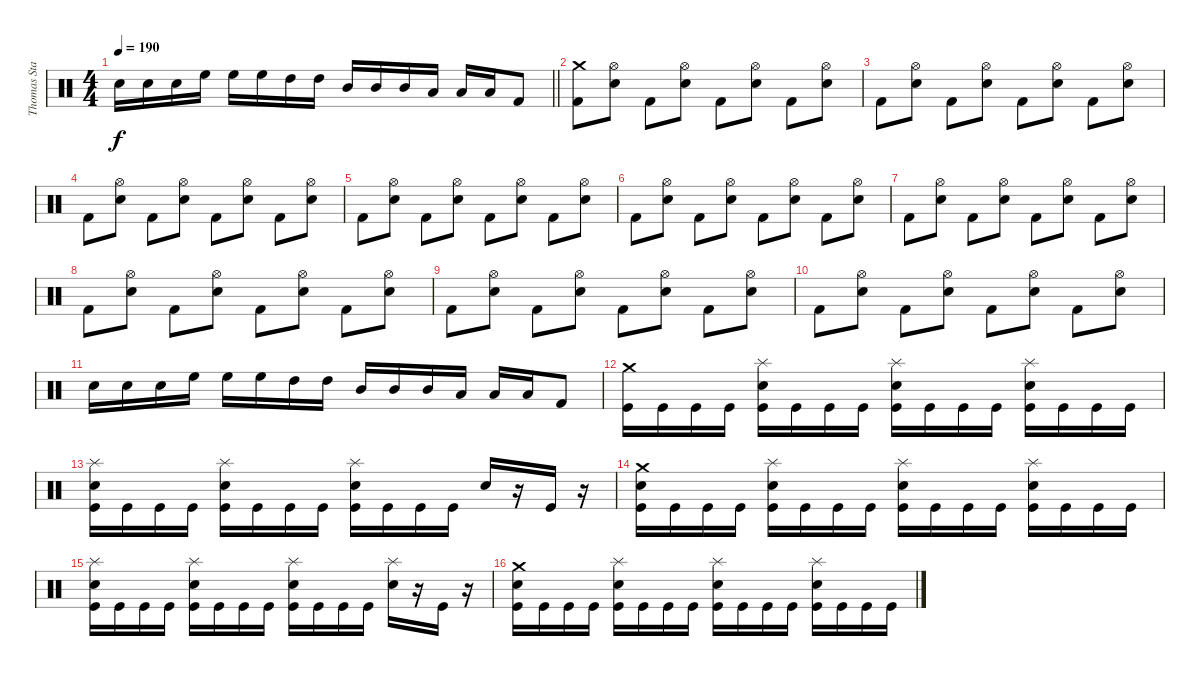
\track ("Thomas Stauch" "Thomas Sta") {instrument percussion}
\staff {score}
\articulation defaults
\ts (4 4)
\tempo 190
\clef neutral
\barLineRight lightlight
\ks c "Snare (hit) 2".16{dy f} "Snare (hit) 2".16 "Snare (hit) 2".16 "High Floor Tom (hit)".16 "High Floor Tom (hit)".16 "High Floor Tom (hit)".16 "High Tom (hit)".16 "High Tom (hit)".16 "Mid Tom (hit)".16 "Mid Tom (hit)".16 "Mid Tom (hit)".16 "Low Tom (hit)".16 "Low Tom (hit)".16 "Low Tom (hit)".16 "Kick (hit) 2".8
|
("Crash medium (hit)" "Kick (hit) 2").8 ("Hi-Hat (open)" "Electric Snare (hit)").8 "Kick (hit) 2".8 ("Hi-Hat (open)" "Electric Snare (hit)").8 "Kick (hit) 2".8 ("Hi-Hat (open)" "Electric Snare (hit)").8 "Kick (hit) 2".8 ("Hi-Hat (open)" "Electric Snare (hit)").8 |
"Kick (hit) 2".8 ("Hi-Hat (open)" "Electric Snare (hit)").8 "Kick (hit) 2".8 ("Hi-Hat (open)" "Electric Snare (hit)").8 "Kick (hit) 2".8 ("Hi-Hat (open)" "Electric Snare (hit)").8 "Kick (hit) 2".8 ("Hi-Hat (open)" "Electric Snare (hit)").8 |
"Kick (hit) 2".8 ("Hi-Hat (open)" "Electric Snare (hit)").8 "Kick (hit) 2".8 ("Hi-Hat (open)" "Electric Snare (hit)").8 "Kick (hit) 2".8 ("Hi-Hat (open)" "Electric Snare (hit)").8 "Kick (hit) 2".8 ("Hi-Hat (open)" "Electric Snare (hit)").8 |
"Kick (hit) 2".8 ("Hi-Hat (open)" "Electric Snare (hit)").8 "Kick (hit) 2".8 ("Hi-Hat (open)" "Electric Snare (hit)").8 "Kick (hit) 2".8 ("Hi-Hat (open)" "Electric Snare (hit)").8 "Kick (hit) 2".8 ("Hi-Hat (open)" "Electric Snare (hit)").8 |
"Kick (hit) 2".8 ("Hi-Hat (open)" "Electric Snare (hit)").8 "Kick (hit) 2".8 ("Hi-Hat (open)" "Electric Snare (hit)").8 "Kick (hit) 2".8 ("Hi-Hat (open)" "Electric Snare (hit)").8 "Kick (hit) 2".8 ("Hi-Hat (open)" "Electric Snare (hit)").8 |
"Kick (hit) 2".8 ("Hi-Hat (open)" "Electric Snare (hit)").8 "Kick (hit) 2".8 ("Hi-Hat (open)" "Electric Snare (hit)").8 "Kick (hit) 2".8 ("Hi-Hat (open)" "Electric Snare (hit)").8 "Kick (hit) 2".8 ("Hi-Hat (open)" "Electric Snare (hit)").8 |
"Kick (hit) 2".8 ("Hi-Hat (open)" "Electric Snare (hit)").8 "Kick (hit) 2".8 ("Hi-Hat (open)" "Electric Snare (hit)").8 "Kick (hit) 2".8 ("Hi-Hat (open)" "Electric Snare (hit)").8 "Kick (hit) 2".8 ("Hi-Hat (open)" "Electric Snare (hit)").8 |
"Kick (hit) 2".8 ("Hi-Hat (open)" "Electric Snare (hit)").8 "Kick (hit) 2".8 ("Hi-Hat (open)" "Electric Snare (hit)").8 "Kick (hit) 2".8 ("Hi-Hat (open)" "Electric Snare (hit)").8 "Kick (hit) 2".8 ("Hi-Hat (open)" "Electric Snare (hit)").8 |
"Kick (hit) 2".8 ("Hi-Hat (open)" "Electric Snare (hit)").8 "Kick (hit) 2".8 ("Hi-Hat (open)" "Electric Snare (hit)").8 "Kick (hit) 2".8 ("Hi-Hat (open)" "Electric Snare (hit)").8 "Kick (hit) 2".8 ("Hi-Hat (open)" "Electric Snare (hit)").8 |
"Snare (hit) 2".16 "Snare (hit) 2".16 "Snare (hit) 2".16 "High Floor Tom (hit)".16 "High Floor Tom (hit)".16 "High Floor Tom (hit)".16 "High Tom (hit)".16 "High Tom (hit)".16 "Mid Tom (hit)".16 "Mid Tom (hit)".16 "Mid Tom (hit)".16 "Low Tom (hit)".16 "Low Tom (hit)".16 "Low Tom (hit)".16 "Kick (hit) 2".8 |
("Crash medium (hit)" "Kick (hit)").16 "Kick (hit)".16 "Kick (hit)".16 "Kick (hit)".16 ("Splash (hit)" "Electric Snare (hit)" "Kick (hit)").16 "Kick (hit)".16 "Kick (hit)".16 "Kick (hit)".16 ("Splash (hit)" "Electric Snare (hit)" "Kick (hit)").16 "Kick (hit)".16 "Kick (hit)".16 "Kick (hit)".16 ("Splash (hit)" "Electric Snare (hit)" "Kick (hit)").16 "Kick (hit)".16 "Kick (hit)".16 "Kick (hit)".16 |
("Splash (hit)" "Electric Snare (hit)" "Kick (hit)").16 "Kick (hit)".16 "Kick (hit)".16 "Kick (hit)".16 ("Splash (hit)" "Electric Snare (hit)" "Kick (hit)").16 "Kick (hit)".16 "Kick (hit)".16 "Kick (hit)".16 ("Splash (hit)" "Electric Snare (hit)" "Kick (hit)").16 "Kick (hit)".16 "Kick (hit)".16 "Kick (hit)".16 "Electric Snare (hit)".16 r.16 "Kick (hit)".16 r.16 |
("Crash medium (hit)" "Electric Snare (hit)" "Kick (hit)").16 "Kick (hit)".16 "Kick (hit)".16 "Kick (hit)".16 ("Splash (hit)" "Electric Snare (hit)" "Kick (hit)").16 "Kick (hit)".16 "Kick (hit)".16 "Kick (hit)".16 ("Splash (hit)" "Electric Snare (hit)" "Kick (hit)").16 "Kick (hit)".16 "Kick (hit)".16 "Kick (hit)".16 ("Splash (hit)" "Electric Snare (hit)" "Kick (hit)").16 "Kick (hit)".16 "Kick (hit)".16 "Kick (hit)".16 |
("Splash (hit)" "Electric Snare (hit)" "Kick (hit)").16 "Kick (hit)".16 "Kick (hit)".16 "Kick (hit)".16 ("Splash (hit)" "Electric Snare (hit)" "Kick (hit)").16 "Kick (hit)".16 "Kick (hit)".16 "Kick (hit)".16 ("Splash (hit)" "Electric Snare (hit)" "Kick (hit)").16 "Kick (hit)".16 "Kick (hit)".16 "Kick (hit)".16 ("Splash (hit)" "Electric Snare (hit)").16 r.16 "Kick (hit)".16 r.16 |
("Crash medium (hit)" "Electric Snare (hit)" "Kick (hit)").16 "Kick (hit)".16 "Kick (hit)".16 "Kick (hit)".16 ("Splash (hit)" "Electric Snare (hit)" "Kick (hit)").16 "Kick (hit)".16 "Kick (hit)".16 "Kick (hit)".16 ("Splash (hit)" "Electric Snare (hit)" "Kick (hit)").16 "Kick (hit)".16 "Kick (hit)".16 "Kick (hit)".16 ("Splash (hit)" "Electric Snare (hit)" "Kick (hit)").16 "Kick (hit)".16 "Kick (hit)".16 "Kick (hit)".16
